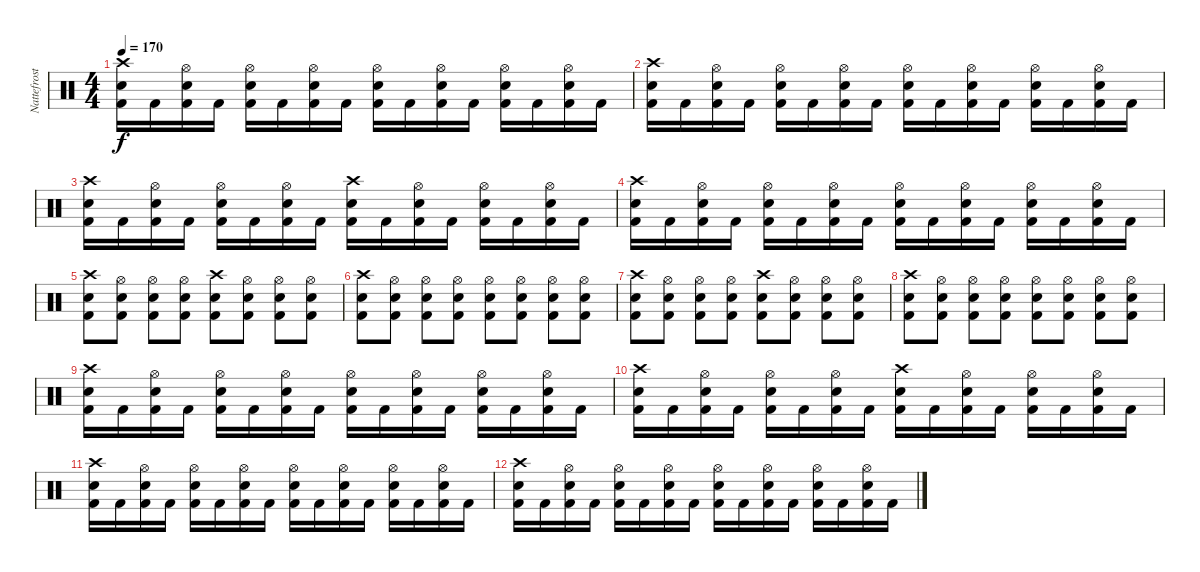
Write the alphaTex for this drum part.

\track ("Nattefrost" "Nattefrost") {instrument percussion}
\staff {score}
\articulation defaults
\ts (4 4)
\tempo 170
\clef neutral
\ks c
("Crash high (hit)" "Snare (hit) 2" "Kick (hit) 2").16{dy f} "Kick (hit) 2".16 ("Hi-Hat (open)" "Snare (hit) 2" "Kick (hit) 2").16 "Kick (hit) 2".16 ("Hi-Hat (open)" "Snare (hit) 2" "Kick (hit) 2").16 "Kick (hit) 2".16 ("Hi-Hat (open)" "Snare (hit) 2" "Kick (hit) 2").16 "Kick (hit) 2".16 ("Hi-Hat (open)" "Snare (hit) 2" "Kick (hit) 2").16 "Kick (hit) 2".16 ("Hi-Hat (open)" "Snare (hit) 2" "Kick (hit) 2").16 "Kick (hit) 2".16 ("Hi-Hat (open)" "Snare (hit) 2" "Kick (hit) 2").16 "Kick (hit) 2".16 ("Hi-Hat (open)" "Snare (hit) 2" "Kick (hit) 2").16 "Kick (hit) 2".16 |
("Crash high (hit)" "Snare (hit) 2" "Kick (hit) 2").16 "Kick (hit) 2".16 ("Hi-Hat (open)" "Snare (hit) 2" "Kick (hit) 2").16 "Kick (hit) 2".16 ("Hi-Hat (open)" "Snare (hit) 2" "Kick (hit) 2").16 "Kick (hit) 2".16 ("Hi-Hat (open)" "Snare (hit) 2" "Kick (hit) 2").16 "Kick (hit) 2".16 ("Hi-Hat (open)" "Snare (hit) 2" "Kick (hit) 2").16 "Kick (hit) 2".16 ("Hi-Hat (open)" "Snare (hit) 2" "Kick (hit) 2").16 "Kick (hit) 2".16 ("Hi-Hat (open)" "Snare (hit) 2" "Kick (hit) 2").16 "Kick (hit) 2".16 ("Hi-Hat (open)" "Snare (hit) 2" "Kick (hit) 2").16 "Kick (hit) 2".16 |
("Crash high (hit)" "Snare (hit) 2" "Kick (hit) 2").16 "Kick (hit) 2".16 ("Hi-Hat (open)" "Snare (hit) 2" "Kick (hit) 2").16 "Kick (hit) 2".16 ("Hi-Hat (open)" "Snare (hit) 2" "Kick (hit) 2").16 "Kick (hit) 2".16 ("Hi-Hat (open)" "Snare (hit) 2" "Kick (hit) 2").16 "Kick (hit) 2".16 ("Crash high (hit)" "Snare (hit) 2" "Kick (hit) 2").16 "Kick (hit) 2".16 ("Hi-Hat (open)" "Snare (hit) 2" "Kick (hit) 2").16 "Kick (hit) 2".16 ("Hi-Hat (open)" "Snare (hit) 2" "Kick (hit) 2").16 "Kick (hit) 2".16 ("Hi-Hat (open)" "Snare (hit) 2" "Kick (hit) 2").16 "Kick (hit) 2".16 |
("Crash high (hit)" "Snare (hit) 2" "Kick (hit) 2").16 "Kick (hit) 2".16 ("Hi-Hat (open)" "Snare (hit) 2" "Kick (hit) 2").16 "Kick (hit) 2".16 ("Hi-Hat (open)" "Snare (hit) 2" "Kick (hit) 2").16 "Kick (hit) 2".16 ("Hi-Hat (open)" "Snare (hit) 2" "Kick (hit) 2").16 "Kick (hit) 2".16 ("Hi-Hat (open)" "Snare (hit) 2" "Kick (hit) 2").16 "Kick (hit) 2".16 ("Hi-Hat (open)" "Snare (hit) 2" "Kick (hit) 2").16 "Kick (hit) 2".16 ("Hi-Hat (open)" "Snare (hit) 2" "Kick (hit) 2").16 "Kick (hit) 2".16 ("Hi-Hat (open)" "Snare (hit) 2" "Kick (hit) 2").16 "Kick (hit) 2".16 |
("Crash high (hit)" "Snare (hit) 2" "Kick (hit) 2").8 ("Hi-Hat (open)" "Snare (hit) 2" "Kick (hit) 2").8 ("Hi-Hat (open)" "Snare (hit) 2" "Kick (hit) 2").8 ("Hi-Hat (open)" "Snare (hit) 2" "Kick (hit) 2").8 ("Crash high (hit)" "Snare (hit) 2" "Kick (hit) 2").8 ("Hi-Hat (open)" "Snare (hit) 2" "Kick (hit) 2").8 ("Hi-Hat (open)" "Snare (hit) 2" "Kick (hit) 2").8 ("Hi-Hat (open)" "Snare (hit) 2" "Kick (hit) 2").8 |
("Crash high (hit)" "Snare (hit) 2" "Kick (hit) 2").8 ("Hi-Hat (open)" "Snare (hit) 2" "Kick (hit) 2").8 ("Hi-Hat (open)" "Snare (hit) 2" "Kick (hit) 2").8 ("Hi-Hat (open)" "Snare (hit) 2" "Kick (hit) 2").8 ("Hi-Hat (open)" "Snare (hit) 2" "Kick (hit) 2").8 ("Hi-Hat (open)" "Snare (hit) 2" "Kick (hit) 2").8 ("Hi-Hat (open)" "Snare (hit) 2" "Kick (hit) 2").8 ("Hi-Hat (open)" "Snare (hit) 2" "Kick (hit) 2").8 |
("Crash high (hit)" "Snare (hit) 2" "Kick (hit) 2").8 ("Hi-Hat (open)" "Snare (hit) 2" "Kick (hit) 2").8 ("Hi-Hat (open)" "Snare (hit) 2" "Kick (hit) 2").8 ("Hi-Hat (open)" "Snare (hit) 2" "Kick (hit) 2").8 ("Crash high (hit)" "Snare (hit) 2" "Kick (hit) 2").8 ("Hi-Hat (open)" "Snare (hit) 2" "Kick (hit) 2").8 ("Hi-Hat (open)" "Snare (hit) 2" "Kick (hit) 2").8 ("Hi-Hat (open)" "Snare (hit) 2" "Kick (hit) 2").8 |
("Crash high (hit)" "Snare (hit) 2" "Kick (hit) 2").8 ("Hi-Hat (open)" "Snare (hit) 2" "Kick (hit) 2").8 ("Hi-Hat (open)" "Snare (hit) 2" "Kick (hit) 2").8 ("Hi-Hat (open)" "Snare (hit) 2" "Kick (hit) 2").8 ("Hi-Hat (open)" "Snare (hit) 2" "Kick (hit) 2").8 ("Hi-Hat (open)" "Snare (hit) 2" "Kick (hit) 2").8 ("Hi-Hat (open)" "Snare (hit) 2" "Kick (hit) 2").8 ("Hi-Hat (open)" "Snare (hit) 2" "Kick (hit) 2").8 |
("Crash high (hit)" "Snare (hit) 2" "Kick (hit) 2").16 "Kick (hit) 2".16 ("Hi-Hat (open)" "Snare (hit) 2" "Kick (hit) 2").16 "Kick (hit) 2".16 ("Hi-Hat (open)" "Snare (hit) 2" "Kick (hit) 2").16 "Kick (hit) 2".16 ("Hi-Hat (open)" "Snare (hit) 2" "Kick (hit) 2").16 "Kick (hit) 2".16 ("Hi-Hat (open)" "Snare (hit) 2" "Kick (hit) 2").16 "Kick (hit) 2".16 ("Hi-Hat (open)" "Snare (hit) 2" "Kick (hit) 2").16 "Kick (hit) 2".16 ("Hi-Hat (open)" "Snare (hit) 2" "Kick (hit) 2").16 "Kick (hit) 2".16 ("Hi-Hat (open)" "Snare (hit) 2" "Kick (hit) 2").16 "Kick (hit) 2".16 |
("Crash high (hit)" "Snare (hit) 2" "Kick (hit) 2").16 "Kick (hit) 2".16 ("Hi-Hat (open)" "Snare (hit) 2" "Kick (hit) 2").16 "Kick (hit) 2".16 ("Hi-Hat (open)" "Snare (hit) 2" "Kick (hit) 2").16 "Kick (hit) 2".16 ("Hi-Hat (open)" "Snare (hit) 2" "Kick (hit) 2").16 "Kick (hit) 2".16 ("Crash high (hit)" "Snare (hit) 2" "Kick (hit) 2").16 "Kick (hit) 2".16 ("Hi-Hat (open)" "Snare (hit) 2" "Kick (hit) 2").16 "Kick (hit) 2".16 ("Hi-Hat (open)" "Snare (hit) 2" "Kick (hit) 2").16 "Kick (hit) 2".16 ("Hi-Hat (open)" "Snare (hit) 2" "Kick (hit) 2").16 "Kick (hit) 2".16 |
("Crash high (hit)" "Snare (hit) 2" "Kick (hit) 2").16 "Kick (hit) 2".16 ("Hi-Hat (open)" "Snare (hit) 2" "Kick (hit) 2").16 "Kick (hit) 2".16 ("Hi-Hat (open)" "Snare (hit) 2" "Kick (hit) 2").16 "Kick (hit) 2".16 ("Hi-Hat (open)" "Snare (hit) 2" "Kick (hit) 2").16 "Kick (hit) 2".16 ("Hi-Hat (open)" "Snare (hit) 2" "Kick (hit) 2").16 "Kick (hit) 2".16 ("Hi-Hat (open)" "Snare (hit) 2" "Kick (hit) 2").16 "Kick (hit) 2".16 ("Hi-Hat (open)" "Snare (hit) 2" "Kick (hit) 2").16 "Kick (hit) 2".16 ("Hi-Hat (open)" "Snare (hit) 2" "Kick (hit) 2").16 "Kick (hit) 2".16 |
("Crash high (hit)" "Snare (hit) 2" "Kick (hit) 2").16 "Kick (hit) 2".16 ("Hi-Hat (open)" "Snare (hit) 2" "Kick (hit) 2").16 "Kick (hit) 2".16 ("Hi-Hat (open)" "Snare (hit) 2" "Kick (hit) 2").16 "Kick (hit) 2".16 ("Hi-Hat (open)" "Snare (hit) 2" "Kick (hit) 2").16 "Kick (hit) 2".16 ("Hi-Hat (open)" "Snare (hit) 2" "Kick (hit) 2").16 "Kick (hit) 2".16 ("Hi-Hat (open)" "Snare (hit) 2" "Kick (hit) 2").16 "Kick (hit) 2".16 ("Hi-Hat (open)" "Snare (hit) 2" "Kick (hit) 2").16 "Kick (hit) 2".16 ("Hi-Hat (open)" "Snare (hit) 2" "Kick (hit) 2").16 "Kick (hit) 2".16
